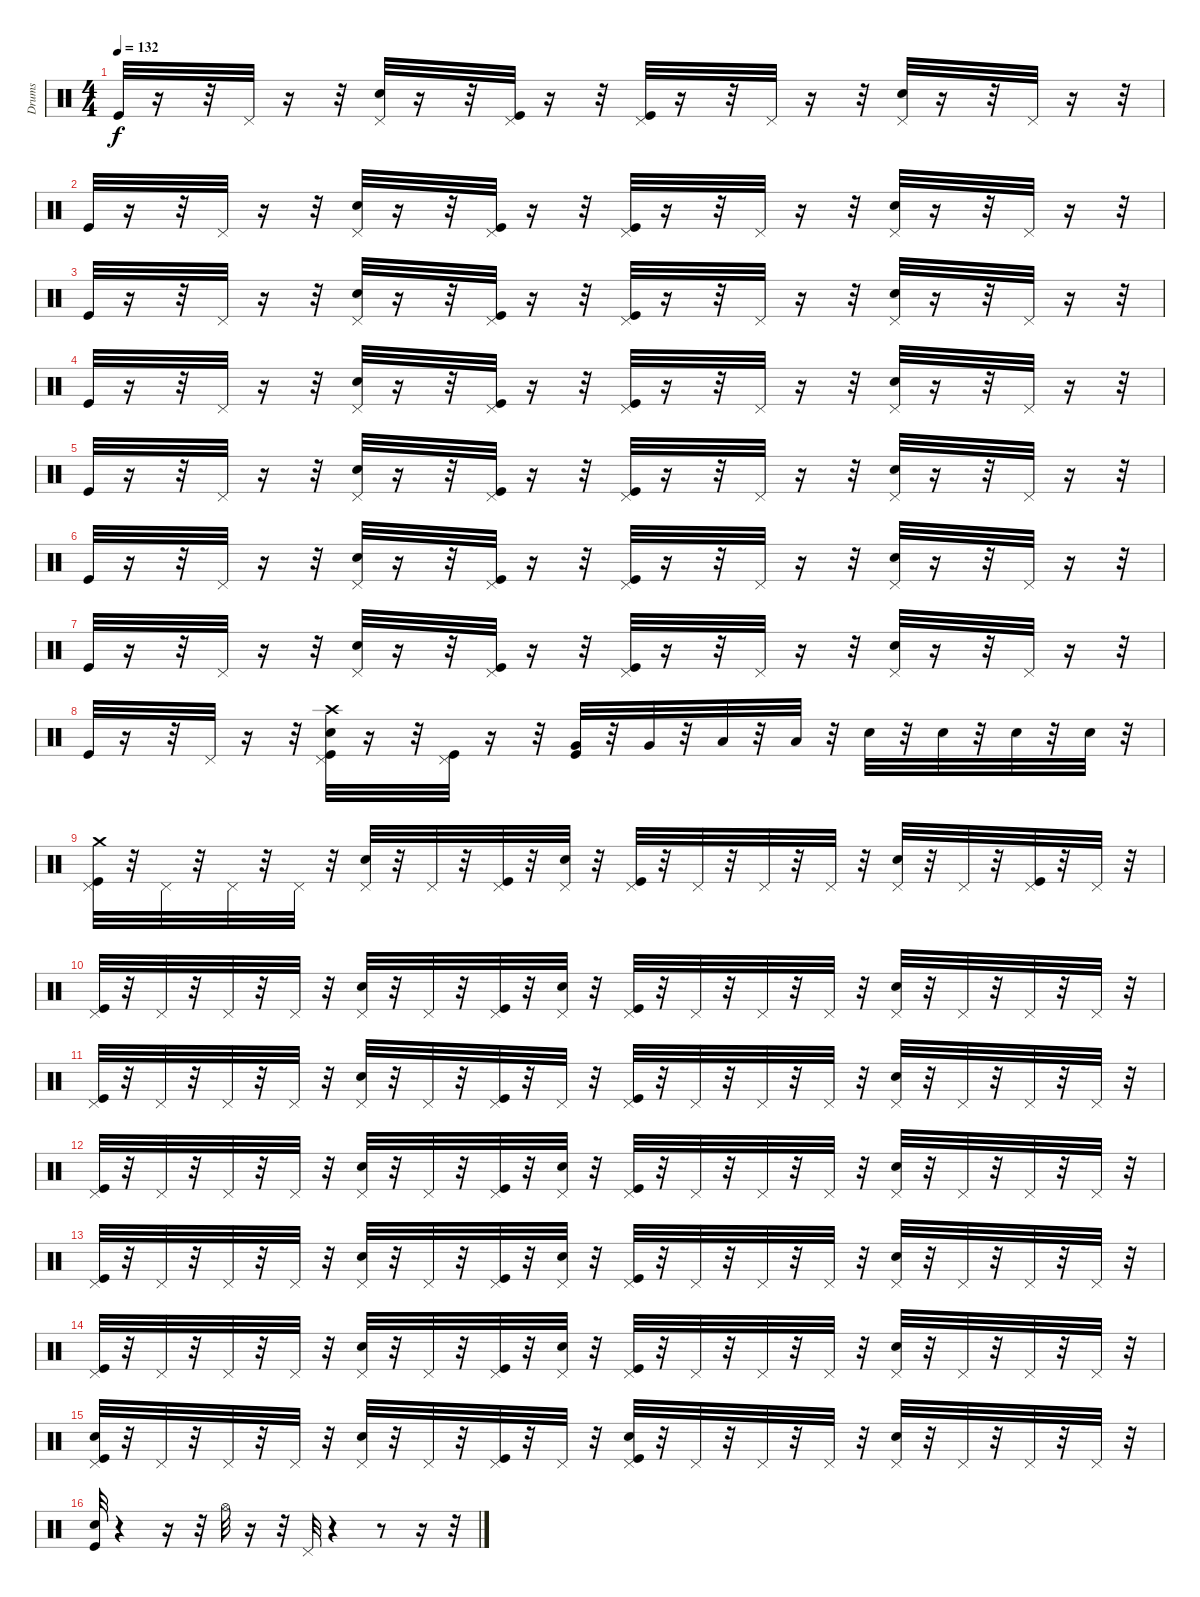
\track ("Drums" "Drums") {instrument percussion}
\staff {score}
\articulation defaults
\ts (4 4)
\tempo 132
\clef neutral
\ks c "Kick (hit)".32{dy f}
r.16 r.32 "Pedal Hi-Hat (hit)".32 r.16 r.32 ("Electric Snare (hit)" "Pedal Hi-Hat (hit)").32 r.16 r.32 ("Kick (hit)" "Pedal Hi-Hat (hit)").32 r.16 r.32 ("Kick (hit)" "Pedal Hi-Hat (hit)").32 r.16 r.32 "Pedal Hi-Hat (hit)".32 r.16 r.32 ("Electric Snare (hit)" "Pedal Hi-Hat (hit)").32 r.16 r.32 "Pedal Hi-Hat (hit)".32 r.16 r.32 |
"Kick (hit)".32 r.16 r.32 "Pedal Hi-Hat (hit)".32 r.16 r.32 ("Electric Snare (hit)" "Pedal Hi-Hat (hit)").32 r.16 r.32 ("Kick (hit)" "Pedal Hi-Hat (hit)").32 r.16 r.32 ("Kick (hit)" "Pedal Hi-Hat (hit)").32 r.16 r.32 "Pedal Hi-Hat (hit)".32 r.16 r.32 ("Electric Snare (hit)" "Pedal Hi-Hat (hit)").32 r.16 r.32 "Pedal Hi-Hat (hit)".32 r.16 r.32 |
"Kick (hit)".32 r.16 r.32 "Pedal Hi-Hat (hit)".32 r.16 r.32 ("Electric Snare (hit)" "Pedal Hi-Hat (hit)").32 r.16 r.32 ("Kick (hit)" "Pedal Hi-Hat (hit)").32 r.16 r.32 ("Kick (hit)" "Pedal Hi-Hat (hit)").32 r.16 r.32 "Pedal Hi-Hat (hit)".32 r.16 r.32 ("Electric Snare (hit)" "Pedal Hi-Hat (hit)").32 r.16 r.32 "Pedal Hi-Hat (hit)".32 r.16 r.32 |
"Kick (hit)".32 r.16 r.32 "Pedal Hi-Hat (hit)".32 r.16 r.32 ("Electric Snare (hit)" "Pedal Hi-Hat (hit)").32 r.16 r.32 ("Kick (hit)" "Pedal Hi-Hat (hit)").32 r.16 r.32 ("Kick (hit)" "Pedal Hi-Hat (hit)").32 r.16 r.32 "Pedal Hi-Hat (hit)".32 r.16 r.32 ("Electric Snare (hit)" "Pedal Hi-Hat (hit)").32 r.16 r.32 "Pedal Hi-Hat (hit)".32 r.16 r.32 |
"Kick (hit)".32 r.16 r.32 "Pedal Hi-Hat (hit)".32 r.16 r.32 ("Electric Snare (hit)" "Pedal Hi-Hat (hit)").32 r.16 r.32 ("Kick (hit)" "Pedal Hi-Hat (hit)").32 r.16 r.32 ("Kick (hit)" "Pedal Hi-Hat (hit)").32 r.16 r.32 "Pedal Hi-Hat (hit)".32 r.16 r.32 ("Electric Snare (hit)" "Pedal Hi-Hat (hit)").32 r.16 r.32 "Pedal Hi-Hat (hit)".32 r.16 r.32 |
"Kick (hit)".32 r.16 r.32 "Pedal Hi-Hat (hit)".32 r.16 r.32 ("Electric Snare (hit)" "Pedal Hi-Hat (hit)").32 r.16 r.32 ("Kick (hit)" "Pedal Hi-Hat (hit)").32 r.16 r.32 ("Kick (hit)" "Pedal Hi-Hat (hit)").32 r.16 r.32 "Pedal Hi-Hat (hit)".32 r.16 r.32 ("Electric Snare (hit)" "Pedal Hi-Hat (hit)").32 r.16 r.32 "Pedal Hi-Hat (hit)".32 r.16 r.32 |
"Kick (hit)".32 r.16 r.32 "Pedal Hi-Hat (hit)".32 r.16 r.32 ("Electric Snare (hit)" "Pedal Hi-Hat (hit)").32 r.16 r.32 ("Kick (hit)" "Pedal Hi-Hat (hit)").32 r.16 r.32 ("Kick (hit)" "Pedal Hi-Hat (hit)").32 r.16 r.32 "Pedal Hi-Hat (hit)".32 r.16 r.32 ("Electric Snare (hit)" "Pedal Hi-Hat (hit)").32 r.16 r.32 "Pedal Hi-Hat (hit)".32 r.16 r.32 |
"Kick (hit)".32 r.16 r.32 "Pedal Hi-Hat (hit)".32 r.16 r.32 ("Kick (hit)" "Electric Snare (hit)" "Pedal Hi-Hat (hit)" "Crash high (hit)").32 r.16 r.32 ("Kick (hit)" "Pedal Hi-Hat (hit)").32 r.16 r.32 ("Very Low Tom (hit)" "Kick (hit)").32 r.32 "Very Low Tom (hit)".32 r.32 "Low Floor Tom (hit)".32 r.32 "Low Floor Tom (hit)".32 r.32 "Electric Snare (hit)".32 r.32 "Electric Snare (hit)".32 r.32 "Electric Snare (hit)".32 r.32 "Electric Snare (hit)".32 r.32 |
("Crash medium (hit)" "Kick (hit)" "Pedal Hi-Hat (hit)").32 r.32 "Pedal Hi-Hat (hit)".32 r.32 "Pedal Hi-Hat (hit)".32 r.32 "Pedal Hi-Hat (hit)".32 r.32 ("Pedal Hi-Hat (hit)" "Electric Snare (hit)").32 r.32 "Pedal Hi-Hat (hit)".32 r.32 ("Pedal Hi-Hat (hit)" "Kick (hit)").32 r.32 ("Electric Snare (hit)" "Pedal Hi-Hat (hit)").32 r.32 ("Pedal Hi-Hat (hit)" "Kick (hit)").32 r.32 "Pedal Hi-Hat (hit)".32 r.32 "Pedal Hi-Hat (hit)".32 r.32 "Pedal Hi-Hat (hit)".32 r.32 ("Pedal Hi-Hat (hit)" "Electric Snare (hit)").32 r.32 "Pedal Hi-Hat (hit)".32 r.32 ("Pedal Hi-Hat (hit)" "Kick (hit)").32 r.32 "Pedal Hi-Hat (hit)".32 r.32 |
("Pedal Hi-Hat (hit)" "Kick (hit)").32 r.32 "Pedal Hi-Hat (hit)".32 r.32 "Pedal Hi-Hat (hit)".32 r.32 "Pedal Hi-Hat (hit)".32 r.32 ("Pedal Hi-Hat (hit)" "Electric Snare (hit)").32 r.32 "Pedal Hi-Hat (hit)".32 r.32 ("Pedal Hi-Hat (hit)" "Kick (hit)").32 r.32 ("Electric Snare (hit)" "Pedal Hi-Hat (hit)").32 r.32 ("Pedal Hi-Hat (hit)" "Kick (hit)").32 r.32 "Pedal Hi-Hat (hit)".32 r.32 "Pedal Hi-Hat (hit)".32 r.32 "Pedal Hi-Hat (hit)".32 r.32 ("Pedal Hi-Hat (hit)" "Electric Snare (hit)").32 r.32 "Pedal Hi-Hat (hit)".32 r.32 "Pedal Hi-Hat (hit)".32 r.32 "Pedal Hi-Hat (hit)".32 r.32 |
("Pedal Hi-Hat (hit)" "Kick (hit)").32 r.32 "Pedal Hi-Hat (hit)".32 r.32 "Pedal Hi-Hat (hit)".32 r.32 "Pedal Hi-Hat (hit)".32 r.32 ("Pedal Hi-Hat (hit)" "Electric Snare (hit)").32 r.32 "Pedal Hi-Hat (hit)".32 r.32 ("Pedal Hi-Hat (hit)" "Kick (hit)").32 r.32 "Pedal Hi-Hat (hit)".32 r.32 ("Pedal Hi-Hat (hit)" "Kick (hit)").32 r.32 "Pedal Hi-Hat (hit)".32 r.32 "Pedal Hi-Hat (hit)".32 r.32 "Pedal Hi-Hat (hit)".32 r.32 ("Pedal Hi-Hat (hit)" "Electric Snare (hit)").32 r.32 "Pedal Hi-Hat (hit)".32 r.32 "Pedal Hi-Hat (hit)".32 r.32 "Pedal Hi-Hat (hit)".32 r.32 |
("Pedal Hi-Hat (hit)" "Kick (hit)").32 r.32 "Pedal Hi-Hat (hit)".32 r.32 "Pedal Hi-Hat (hit)".32 r.32 "Pedal Hi-Hat (hit)".32 r.32 ("Pedal Hi-Hat (hit)" "Electric Snare (hit)").32 r.32 "Pedal Hi-Hat (hit)".32 r.32 ("Pedal Hi-Hat (hit)" "Kick (hit)").32 r.32 ("Electric Snare (hit)" "Pedal Hi-Hat (hit)").32 r.32 ("Pedal Hi-Hat (hit)" "Kick (hit)").32 r.32 "Pedal Hi-Hat (hit)".32 r.32 "Pedal Hi-Hat (hit)".32 r.32 "Pedal Hi-Hat (hit)".32 r.32 ("Pedal Hi-Hat (hit)" "Electric Snare (hit)").32 r.32 "Pedal Hi-Hat (hit)".32 r.32 "Pedal Hi-Hat (hit)".32 r.32 "Pedal Hi-Hat (hit)".32 r.32 |
("Kick (hit)" "Pedal Hi-Hat (hit)").32 r.32 "Pedal Hi-Hat (hit)".32 r.32 "Pedal Hi-Hat (hit)".32 r.32 "Pedal Hi-Hat (hit)".32 r.32 ("Electric Snare (hit)" "Pedal Hi-Hat (hit)").32 r.32 "Pedal Hi-Hat (hit)".32 r.32 ("Kick (hit)" "Pedal Hi-Hat (hit)").32 r.32 ("Electric Snare (hit)" "Pedal Hi-Hat (hit)").32 r.32 ("Kick (hit)" "Pedal Hi-Hat (hit)").32 r.32 "Pedal Hi-Hat (hit)".32 r.32 "Pedal Hi-Hat (hit)".32 r.32 "Pedal Hi-Hat (hit)".32 r.32 ("Electric Snare (hit)" "Pedal Hi-Hat (hit)").32 r.32 "Pedal Hi-Hat (hit)".32 r.32 "Pedal Hi-Hat (hit)".32 r.32 "Pedal Hi-Hat (hit)".32 r.32 |
("Kick (hit)" "Pedal Hi-Hat (hit)").32 r.32 "Pedal Hi-Hat (hit)".32 r.32 "Pedal Hi-Hat (hit)".32 r.32 "Pedal Hi-Hat (hit)".32 r.32 ("Electric Snare (hit)" "Pedal Hi-Hat (hit)").32 r.32 "Pedal Hi-Hat (hit)".32 r.32 ("Kick (hit)" "Pedal Hi-Hat (hit)").32 r.32 ("Pedal Hi-Hat (hit)" "Electric Snare (hit)").32 r.32 ("Kick (hit)" "Pedal Hi-Hat (hit)").32 r.32 "Pedal Hi-Hat (hit)".32 r.32 "Pedal Hi-Hat (hit)".32 r.32 "Pedal Hi-Hat (hit)".32 r.32 ("Electric Snare (hit)" "Pedal Hi-Hat (hit)").32 r.32 "Pedal Hi-Hat (hit)".32 r.32 "Pedal Hi-Hat (hit)".32 r.32 "Pedal Hi-Hat (hit)".32 r.32 |
("Electric Snare (hit)" "Pedal Hi-Hat (hit)" "Kick (hit)").32 r.32 "Pedal Hi-Hat (hit)".32 r.32 "Pedal Hi-Hat (hit)".32 r.32 "Pedal Hi-Hat (hit)".32 r.32 ("Pedal Hi-Hat (hit)" "Electric Snare (hit)").32 r.32 "Pedal Hi-Hat (hit)".32 r.32 ("Pedal Hi-Hat (hit)" "Kick (hit)").32 r.32 "Pedal Hi-Hat (hit)".32 r.32 ("Electric Snare (hit)" "Pedal Hi-Hat (hit)" "Kick (hit)").32 r.32 "Pedal Hi-Hat (hit)".32 r.32 "Pedal Hi-Hat (hit)".32 r.32 "Pedal Hi-Hat (hit)".32 r.32 ("Pedal Hi-Hat (hit)" "Electric Snare (hit)").32 r.32 "Pedal Hi-Hat (hit)".32 r.32 "Pedal Hi-Hat (hit)".32 r.32 "Pedal Hi-Hat (hit)".32 r.32 |
("Electric Snare (hit)" "Kick (hit)").32 r.4 r.16 r.32 "Hi-Hat (open)".32 r.16 r.32 "Pedal Hi-Hat (hit)".32 r.4 r.8 r.16 r.32
